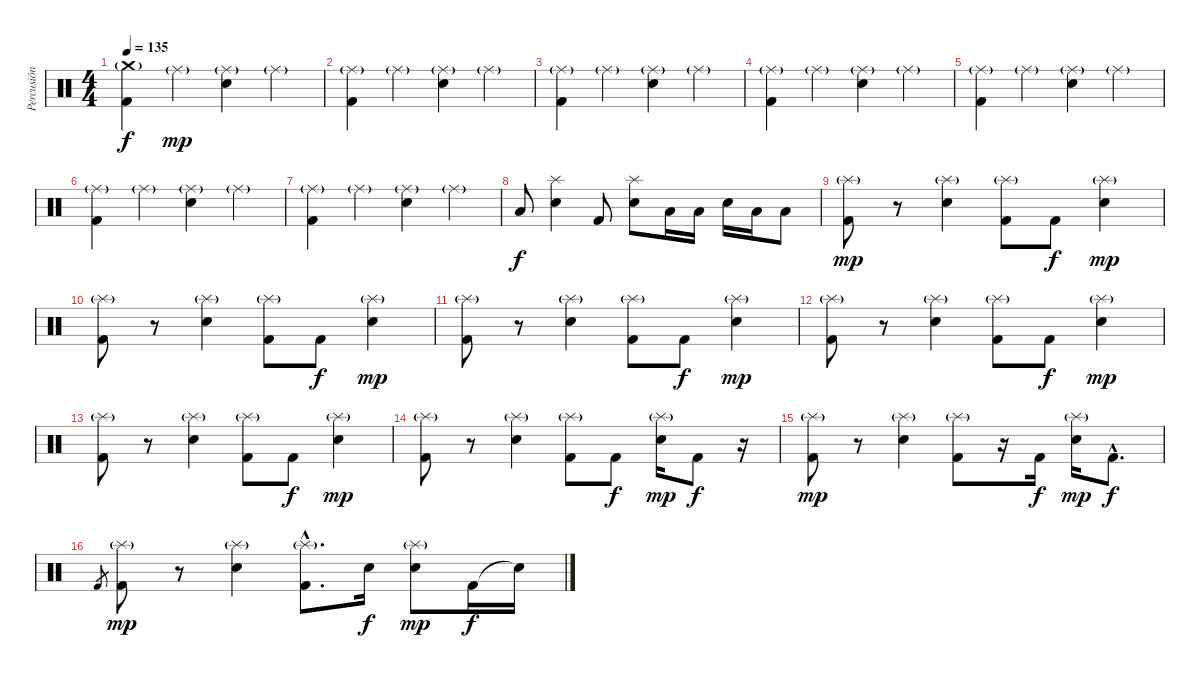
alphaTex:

\track ("Percusión" "Percusión") {instrument percussion}
\staff {score}
\articulation defaults
\ts (4 4)
\tempo 135
\clef neutral
\ks c
("Kick (hit) 2" "Crash medium (hit)"{g}).4{dy f} "Ride (middle)"{g}.4{dy mp} ("Snare (hit) 2" "Ride (middle)"{g}).4 "Ride (middle)"{g}.4 |
("Kick (hit) 2" "Ride (middle)"{g}).4 "Ride (middle)"{g}.4 ("Snare (hit) 2" "Ride (middle)"{g}).4 "Ride (middle)"{g}.4 |
("Kick (hit) 2" "Ride (middle)"{g}).4 "Ride (middle)"{g}.4 ("Snare (hit) 2" "Ride (middle)"{g}).4 "Ride (middle)"{g}.4 |
("Kick (hit) 2" "Ride (middle)"{g}).4 "Ride (middle)"{g}.4 ("Snare (hit) 2" "Ride (middle)"{g}).4 "Ride (middle)"{g}.4 |
("Kick (hit) 2" "Ride (middle)"{g}).4 "Ride (middle)"{g}.4 ("Snare (hit) 2" "Ride (middle)"{g}).4 "Ride (middle)"{g}.4 |
("Kick (hit) 2" "Ride (middle)"{g}).4 "Ride (middle)"{g}.4 ("Snare (hit) 2" "Ride (middle)"{g}).4 "Ride (middle)"{g}.4 |
("Kick (hit) 2" "Ride (middle)"{g}).4 "Ride (middle)"{g}.4 ("Snare (hit) 2" "Ride (middle)"{g}).4 "Ride (middle)"{g}.4 |
"Low Floor Tom (hit)".8{dy f} ("Snare (hit) 2" "Splash (hit)").4 "Kick (hit) 2".8 ("Snare (hit) 2" "Splash (hit)").8 "Low Tom (hit)".16 "Low Tom (hit)".16 "Snare (hit) 2".16 "Low Tom (hit)".16 "Low Tom (hit)".8 |
("Kick (hit) 2" "Splash (hit)"{g}).8{dy mp} r.8 ("Snare (hit) 2" "Splash (hit)"{g}).4 ("Kick (hit) 2" "Splash (hit)"{g}).8 "Kick (hit) 2".8{dy f} ("Snare (hit) 2" "Splash (hit)"{g}).4{dy mp} |
("Kick (hit) 2" "Splash (hit)"{g}).8 r.8 ("Snare (hit) 2" "Splash (hit)"{g}).4 ("Kick (hit) 2" "Splash (hit)"{g}).8 "Kick (hit) 2".8{dy f} ("Snare (hit) 2" "Splash (hit)"{g}).4{dy mp} |
("Kick (hit) 2" "Splash (hit)"{g}).8 r.8 ("Snare (hit) 2" "Splash (hit)"{g}).4 ("Kick (hit) 2" "Splash (hit)"{g}).8 "Kick (hit) 2".8{dy f} ("Snare (hit) 2" "Splash (hit)"{g}).4{dy mp} |
("Kick (hit) 2" "Splash (hit)"{g}).8 r.8 ("Snare (hit) 2" "Splash (hit)"{g}).4 ("Kick (hit) 2" "Splash (hit)"{g}).8 "Kick (hit) 2".8{dy f} ("Snare (hit) 2" "Splash (hit)"{g}).4{dy mp} |
("Kick (hit) 2" "Splash (hit)"{g}).8 r.8 ("Snare (hit) 2" "Splash (hit)"{g}).4 ("Kick (hit) 2" "Splash (hit)"{g}).8 "Kick (hit) 2".8{dy f} ("Snare (hit) 2" "Splash (hit)"{g}).4{dy mp} |
("Kick (hit) 2" "Splash (hit)"{g}).8 r.8 ("Snare (hit) 2" "Splash (hit)"{g}).4 ("Kick (hit) 2" "Splash (hit)"{g}).8 "Kick (hit) 2".8{dy f} ("Snare (hit) 2" "Splash (hit)"{g}).16{dy mp} "Kick (hit) 2".8{dy f} r.16 |
("Kick (hit) 2" "Splash (hit)"{g}).8{dy mp} r.8 ("Snare (hit) 2" "Splash (hit)"{g}).4 ("Kick (hit) 2" "Splash (hit)"{g}).8 r.16 "Kick (hit) 2".16{dy f} ("Snare (hit) 2" "Splash (hit)"{g}).16{dy mp} "Kick (hit) 2"{hac}.8{d dy f} |
"Kick (hit) 2".8{gr} ("Kick (hit) 2" "Splash (hit)"{g}).8{dy mp} r.8 ("Snare (hit) 2" "Splash (hit)"{g}).4 ("Kick (hit) 2"{hac} "Splash (hit)"{g hac}).8{d} "Snare (hit) 2".16{dy f} ("Snare (hit) 2" "Splash (hit)"{g}).8{dy mp} "Kick (hit) 2".16{dy f} "Snare (hit)"{t}.16
